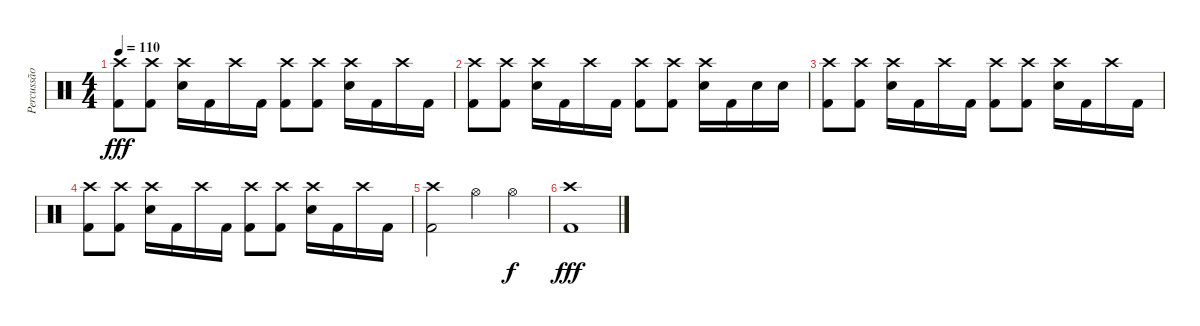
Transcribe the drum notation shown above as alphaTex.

\track ("Percussão" "Percussão") {instrument percussion}
\staff {score}
\articulation defaults
\ts (4 4)
\tempo 110
\clef neutral
\ks c
("Crash high (hit)" "Kick (hit) 2").8{dy fff} ("Crash high (hit)" "Kick (hit) 2").8 ("Crash high (hit)" "Electric Snare (hit)").16 "Kick (hit) 2".16 "Crash high (hit)".16 "Kick (hit) 2".16 ("Crash high (hit)" "Kick (hit) 2").8 ("Crash high (hit)" "Kick (hit) 2").8 ("Crash high (hit)" "Electric Snare (hit)").16 "Kick (hit) 2".16 "Crash high (hit)".16 "Kick (hit) 2".16 |
("Crash high (hit)" "Kick (hit) 2").8 ("Crash high (hit)" "Kick (hit) 2").8 ("Crash high (hit)" "Electric Snare (hit)").16 "Kick (hit) 2".16 "Crash high (hit)".16 "Kick (hit) 2".16 ("Crash high (hit)" "Kick (hit) 2").8 ("Crash high (hit)" "Kick (hit) 2").8 ("Crash high (hit)" "Electric Snare (hit)").16 "Kick (hit) 2".16 "Electric Snare (hit)".16 "Electric Snare (hit)".16 |
("Crash high (hit)" "Kick (hit) 2").8 ("Crash high (hit)" "Kick (hit) 2").8 ("Crash high (hit)" "Electric Snare (hit)").16 "Kick (hit) 2".16 "Crash high (hit)".16 "Kick (hit) 2".16 ("Crash high (hit)" "Kick (hit) 2").8 ("Crash high (hit)" "Kick (hit) 2").8 ("Crash high (hit)" "Electric Snare (hit)").16 "Kick (hit) 2".16 "Crash high (hit)".16 "Kick (hit) 2".16 |
("Crash high (hit)" "Kick (hit) 2").8 ("Crash high (hit)" "Kick (hit) 2").8 ("Crash high (hit)" "Electric Snare (hit)").16 "Kick (hit) 2".16 "Crash high (hit)".16 "Kick (hit) 2".16 ("Crash high (hit)" "Kick (hit) 2").8 ("Crash high (hit)" "Kick (hit) 2").8 ("Crash high (hit)" "Electric Snare (hit)").16 "Kick (hit) 2".16 "Crash high (hit)".16 "Kick (hit) 2".16 |
("Crash high (hit)" "Kick (hit) 2").2 "Hi-Hat (open)".4 "Hi-Hat (open)".4{dy f} |
("Crash high (hit)" "Kick (hit) 2").1{dy fff}
